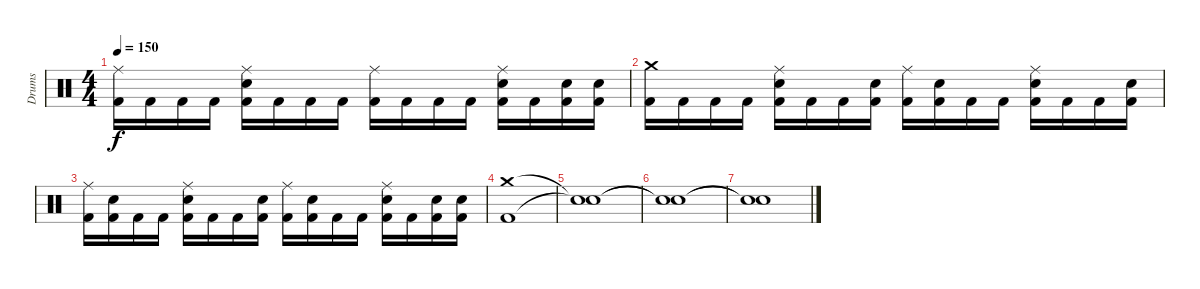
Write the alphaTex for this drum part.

\track ("Drums" "Drums") {instrument percussion}
\staff {score}
\articulation defaults
\ts (4 4)
\tempo 150
\clef neutral
\ks c
("Ride (middle)" "Kick (hit) 2").16{dy f} "Kick (hit) 2".16 "Kick (hit) 2".16 "Kick (hit) 2".16 ("Ride (middle)" "Electric Snare (hit)" "Kick (hit) 2").16 "Kick (hit) 2".16 "Kick (hit) 2".16 "Kick (hit) 2".16 ("Ride (middle)" "Kick (hit) 2").16 "Kick (hit) 2".16 "Kick (hit) 2".16 "Kick (hit) 2".16 ("Ride (middle)" "Electric Snare (hit)" "Kick (hit) 2").16 "Kick (hit) 2".16 ("Electric Snare (hit)" "Kick (hit) 2").16 ("Electric Snare (hit)" "Kick (hit) 2").16 |
("Crash medium (hit)" "Kick (hit) 2").16 "Kick (hit) 2".16 "Kick (hit) 2".16 "Kick (hit) 2".16 ("Ride (middle)" "Electric Snare (hit)" "Kick (hit) 2").16 "Kick (hit) 2".16 "Kick (hit) 2".16 ("Electric Snare (hit)" "Kick (hit) 2").16 ("Ride (middle)" "Kick (hit) 2").16 ("Electric Snare (hit)" "Kick (hit) 2").16 "Kick (hit) 2".16 "Kick (hit) 2".16 ("Ride (middle)" "Electric Snare (hit)" "Kick (hit) 2").16 "Kick (hit) 2".16 "Kick (hit) 2".16 ("Electric Snare (hit)" "Kick (hit) 2").16 |
("Ride (middle)" "Kick (hit) 2").16 ("Electric Snare (hit)" "Kick (hit) 2").16 "Kick (hit) 2".16 "Kick (hit) 2".16 ("Ride (middle)" "Electric Snare (hit)" "Kick (hit) 2").16 "Kick (hit) 2".16 "Kick (hit) 2".16 ("Electric Snare (hit)" "Kick (hit) 2").16 ("Ride (middle)" "Kick (hit) 2").16 ("Electric Snare (hit)" "Kick (hit) 2").16 "Kick (hit) 2".16 "Kick (hit) 2".16 ("Ride (middle)" "Electric Snare (hit)" "Kick (hit) 2").16 "Kick (hit) 2".16 ("Electric Snare (hit)" "Kick (hit) 2").16 ("Electric Snare (hit)" "Kick (hit) 2").16 |
("Crash medium (hit)" "Kick (hit) 2").1 |
("Snare (hit)"{t} "Snare (hit)"{t}).1 |
("Snare (hit)"{t} "Snare (hit)"{t}).1 |
("Snare (hit)"{t} "Snare (hit)"{t}).1
